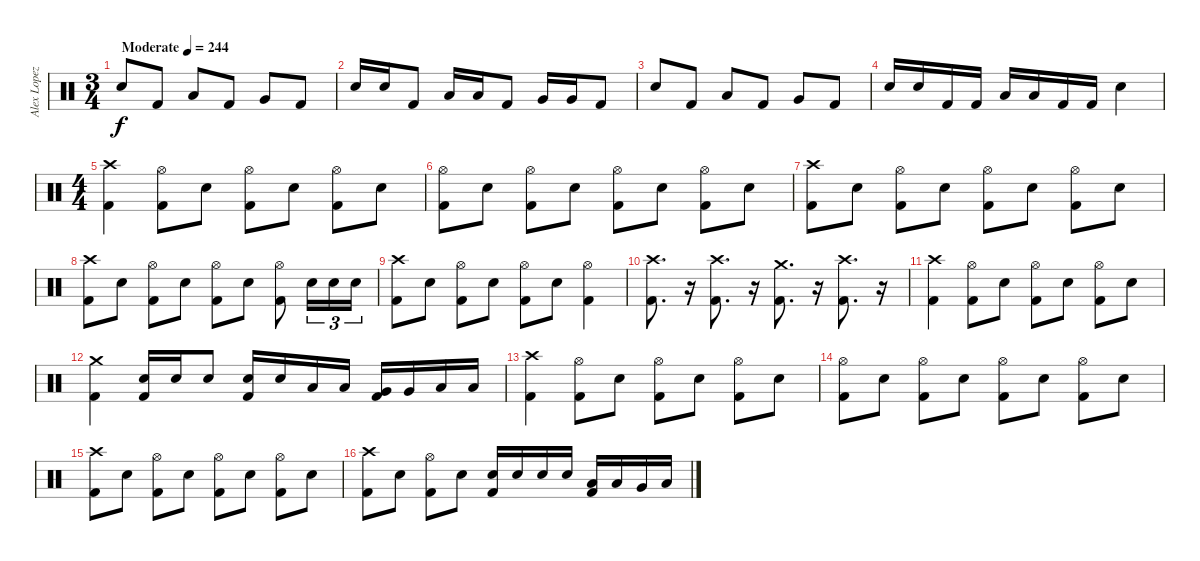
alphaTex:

\track ("Alex Lopez" "Alex Lopez") {instrument percussion}
\staff {score}
\articulation defaults
\ts (3 4)
\tempo (244 "Moderate")
\clef neutral
\ks c "Snare (hit) 2".8{dy f} "Kick (hit) 2".8 "Low Tom (hit)".8 "Kick (hit) 2".8 "Very Low Tom (hit)".8 "Kick (hit) 2".8
|
"Snare (hit) 2".16 "Snare (hit) 2".16 "Kick (hit) 2".8 "Low Tom (hit)".16 "Low Tom (hit)".16 "Kick (hit) 2".8 "Very Low Tom (hit)".16 "Very Low Tom (hit)".16 "Kick (hit) 2".8 |
"Snare (hit) 2".8 "Kick (hit) 2".8 "Low Tom (hit)".8 "Kick (hit) 2".8 "Very Low Tom (hit)".8 "Kick (hit) 2".8 |
"Snare (hit) 2".16 "Snare (hit) 2".16 "Kick (hit) 2".16 "Kick (hit) 2".16 "Low Tom (hit)".16 "Low Tom (hit)".16 "Kick (hit) 2".16 "Kick (hit) 2".16 "Snare (hit) 2".4 |
\ts (4 4)
("Crash high (hit)" "Kick (hit) 2").4 ("Hi-Hat (open)" "Kick (hit) 2").8 "Snare (hit) 2".8 ("Hi-Hat (open)" "Kick (hit) 2").8 "Snare (hit) 2".8 ("Hi-Hat (open)" "Kick (hit) 2").8 "Snare (hit) 2".8 |
("Hi-Hat (open)" "Kick (hit) 2").8 "Snare (hit) 2".8 ("Hi-Hat (open)" "Kick (hit) 2").8 "Snare (hit) 2".8 ("Hi-Hat (open)" "Kick (hit) 2").8 "Snare (hit) 2".8 ("Hi-Hat (open)" "Kick (hit) 2").8 "Snare (hit) 2".8 |
("Crash high (hit)" "Kick (hit) 2").8 "Snare (hit) 2".8 ("Hi-Hat (open)" "Kick (hit) 2").8 "Snare (hit) 2".8 ("Hi-Hat (open)" "Kick (hit) 2").8 "Snare (hit) 2".8 ("Hi-Hat (open)" "Kick (hit) 2").8 "Snare (hit) 2".8 |
("Crash high (hit)" "Kick (hit) 2").8 "Snare (hit) 2".8 ("Hi-Hat (open)" "Kick (hit) 2").8 "Snare (hit) 2".8 ("Hi-Hat (open)" "Kick (hit) 2").8 "Snare (hit) 2".8 ("Hi-Hat (open)" "Kick (hit) 2").8 "Snare (hit) 2".16{tu (3 2)} "Snare (hit) 2".16{tu (3 2)} "Snare (hit) 2".16{tu (3 2)} |
("Crash high (hit)" "Kick (hit) 2").8 "Snare (hit) 2".8 ("Hi-Hat (open)" "Kick (hit) 2").8 "Snare (hit) 2".8 ("Hi-Hat (open)" "Kick (hit) 2").8 "Snare (hit) 2".8 ("Hi-Hat (open)" "Kick (hit) 2").4 |
("Crash high (hit)" "Kick (hit) 2").8{d} r.16{volume 0} ("Crash high (hit)" "Kick (hit) 2").8{d volume 16} r.16{volume 0} ("Crash medium (hit)" "Kick (hit) 2").8{d volume 16} r.16{volume 0} ("Crash high (hit)" "Kick (hit) 2").8{d volume 16} r.16{volume 16} |
("Crash high (hit)" "Kick (hit) 2").4{volume 16} ("Hi-Hat (open)" "Kick (hit) 2").8 "Snare (hit) 2".8 ("Hi-Hat (open)" "Kick (hit) 2").8 "Snare (hit) 2".8 ("Hi-Hat (open)" "Kick (hit) 2").8 "Snare (hit) 2".8 |
("Crash medium (hit)" "Kick (hit) 2").4 ("Snare (hit) 2" "Kick (hit) 2").16 "Snare (hit) 2".16 "Snare (hit) 2".8 ("Snare (hit) 2" "Kick (hit) 2").16 "Snare (hit) 2".16 "Low Tom (hit)".16 "Low Tom (hit)".16 ("Very Low Tom (hit)" "Kick (hit) 2").16 "Very Low Tom (hit)".16 "Low Floor Tom (hit)".16 "Low Floor Tom (hit)".16 |
("Crash high (hit)" "Kick (hit) 2").4 ("Hi-Hat (open)" "Kick (hit) 2").8 "Snare (hit) 2".8 ("Hi-Hat (open)" "Kick (hit) 2").8 "Snare (hit) 2".8 ("Hi-Hat (open)" "Kick (hit) 2").8 "Snare (hit) 2".8 |
("Hi-Hat (open)" "Kick (hit) 2").8 "Snare (hit) 2".8 ("Hi-Hat (open)" "Kick (hit) 2").8 "Snare (hit) 2".8 ("Hi-Hat (open)" "Kick (hit) 2").8 "Snare (hit) 2".8 ("Hi-Hat (open)" "Kick (hit) 2").8 "Snare (hit) 2".8 |
("Crash high (hit)" "Kick (hit) 2").8 "Snare (hit) 2".8 ("Hi-Hat (open)" "Kick (hit) 2").8 "Snare (hit) 2".8 ("Hi-Hat (open)" "Kick (hit) 2").8 "Snare (hit) 2".8 ("Hi-Hat (open)" "Kick (hit) 2").8 "Snare (hit) 2".8 |
("Crash high (hit)" "Kick (hit) 2").8 "Snare (hit) 2".8 ("Hi-Hat (open)" "Kick (hit) 2").8 "Snare (hit) 2".8 ("Snare (hit) 2" "Kick (hit) 2").16 "Snare (hit) 2".16 "Snare (hit) 2".16 "Snare (hit) 2".16 ("Low Tom (hit)" "Kick (hit) 2").16 "Low Tom (hit)".16 "Very Low Tom (hit)".16 "Low Floor Tom (hit)".16
